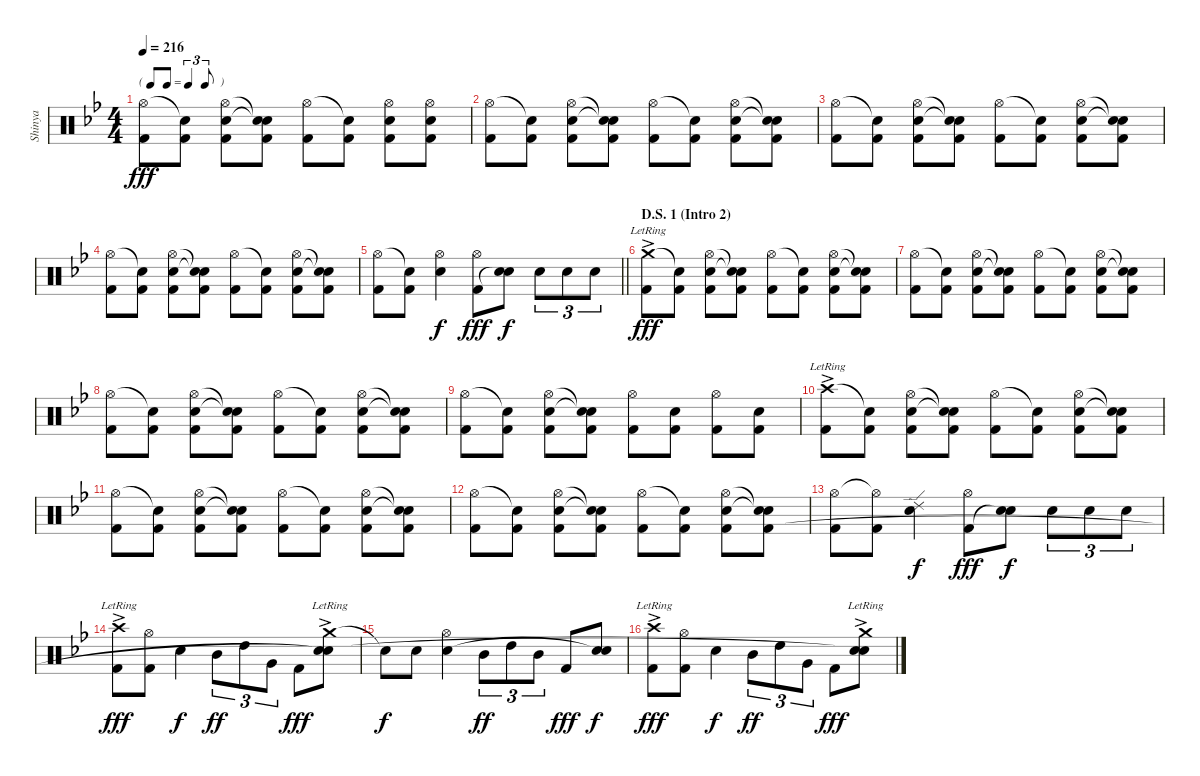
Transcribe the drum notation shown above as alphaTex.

\track ("Shinya" "Shinya") {instrument percussion}
\staff {score}
\articulation defaults
\ts (4 4)
\tf triplet8th
\tempo 216
\clef neutral
\ks bb
("Hi-Hat (open)" "Kick (hit) 2").8{dy fff} ("Snare (hit)"{t} "Kick (hit) 2").8 ("Hi-Hat (open)" "Electric Snare (hit)" "Kick (hit) 2").8 ("Snare (hit)"{t} "Snare (hit)"{t} "Kick (hit) 2").8 ("Hi-Hat (open)" "Kick (hit) 2").8 ("Snare (hit)"{t} "Kick (hit) 2").8 ("Hi-Hat (open)" "Electric Snare (hit)" "Kick (hit) 2").8 ("Hi-Hat (open)" "Electric Snare (hit)" "Kick (hit) 2").8 |
("Hi-Hat (open)" "Kick (hit) 2").8 ("Snare (hit)"{t} "Kick (hit) 2").8 ("Hi-Hat (open)" "Electric Snare (hit)" "Kick (hit) 2").8 ("Snare (hit)"{t} "Snare (hit)"{t} "Kick (hit) 2").8 ("Hi-Hat (open)" "Kick (hit) 2").8 ("Snare (hit)"{t} "Kick (hit) 2").8 ("Hi-Hat (open)" "Electric Snare (hit)" "Kick (hit) 2").8 ("Snare (hit)"{t} "Snare (hit)"{t} "Kick (hit) 2").8 |
("Hi-Hat (open)" "Kick (hit) 2").8 ("Snare (hit)"{t} "Kick (hit) 2").8 ("Hi-Hat (open)" "Electric Snare (hit)" "Kick (hit) 2").8 ("Snare (hit)"{t} "Snare (hit)"{t} "Kick (hit) 2").8 ("Hi-Hat (open)" "Kick (hit) 2").8 ("Snare (hit)"{t} "Kick (hit) 2").8 ("Hi-Hat (open)" "Electric Snare (hit)" "Kick (hit) 2").8 ("Snare (hit)"{t} "Snare (hit)"{t} "Kick (hit) 2").8 |
("Hi-Hat (open)" "Kick (hit) 2").8 ("Snare (hit)"{t} "Kick (hit) 2").8 ("Hi-Hat (open)" "Electric Snare (hit)" "Kick (hit) 2").8 ("Snare (hit)"{t} "Snare (hit)"{t} "Kick (hit) 2").8 ("Hi-Hat (open)" "Kick (hit) 2").8 ("Snare (hit)"{t} "Kick (hit) 2").8 ("Hi-Hat (open)" "Electric Snare (hit)" "Kick (hit) 2").8 ("Snare (hit)"{t} "Snare (hit)"{t} "Kick (hit) 2").8 |
\barLineRight lightlight
("Hi-Hat (open)" "Kick (hit) 2").8 ("Snare (hit)"{t} "Kick (hit) 2").8 ("Hi-Hat (open)" "Electric Snare (hit)").4{dy f} ("Hi-Hat (open)" "Kick (hit) 2").8{dy fff} ("Electric Snare (hit)" "Snare (hit)"{t}).8{dy f} "Electric Snare (hit)".8{tu (3 2)} "Electric Snare (hit)".8{tu (3 2)} "Electric Snare (hit)".8{tu (3 2)} |
\section ("" "D.S. 1 (Intro 2)")
("Crash medium (hit)"{ac lr} "Kick (hit) 2").8{dy fff} ("Snare (hit)"{t} "Kick (hit) 2").8 ("Hi-Hat (open)" "Electric Snare (hit)" "Kick (hit) 2").8 ("Snare (hit)"{t} "Snare (hit)"{t} "Kick (hit) 2").8 ("Hi-Hat (open)" "Kick (hit) 2").8 ("Snare (hit)"{t} "Kick (hit) 2").8 ("Hi-Hat (open)" "Electric Snare (hit)" "Kick (hit) 2").8 ("Snare (hit)"{t} "Electric Snare (hit)"{t} "Kick (hit) 2").8 |
("Hi-Hat (open)" "Kick (hit) 2").8 ("Snare (hit)"{t} "Kick (hit) 2").8 ("Hi-Hat (open)" "Electric Snare (hit)" "Kick (hit) 2").8 ("Snare (hit)"{t} "Snare (hit)"{t} "Kick (hit) 2").8 ("Hi-Hat (open)" "Kick (hit) 2").8 ("Snare (hit)"{t} "Kick (hit) 2").8 ("Hi-Hat (open)" "Electric Snare (hit)" "Kick (hit) 2").8 ("Snare (hit)"{t} "Electric Snare (hit)"{t} "Kick (hit) 2").8 |
("Hi-Hat (open)" "Kick (hit) 2").8 ("Snare (hit)"{t} "Kick (hit) 2").8 ("Hi-Hat (open)" "Electric Snare (hit)" "Kick (hit) 2").8 ("Snare (hit)"{t} "Snare (hit)"{t} "Kick (hit) 2").8 ("Hi-Hat (open)" "Kick (hit) 2").8 ("Snare (hit)"{t} "Kick (hit) 2").8 ("Hi-Hat (open)" "Electric Snare (hit)" "Kick (hit) 2").8 ("Snare (hit)"{t} "Electric Snare (hit)"{t} "Kick (hit) 2").8 |
("Hi-Hat (open)" "Kick (hit) 2").8 ("Snare (hit)"{t} "Kick (hit) 2").8 ("Hi-Hat (open)" "Electric Snare (hit)" "Kick (hit) 2").8 ("Snare (hit)"{t} "Snare (hit)"{t} "Kick (hit) 2").8 ("Hi-Hat (open)" "Kick (hit) 2").8 ("Electric Snare (hit)" "Kick (hit) 2").8 ("Hi-Hat (open)" "Kick (hit) 2").8 ("Electric Snare (hit)" "Kick (hit) 2").8 |
("Crash high (hit)"{ac lr} "Kick (hit) 2").8 ("Snare (hit)"{t} "Kick (hit) 2").8 ("Hi-Hat (open)" "Electric Snare (hit)" "Kick (hit) 2").8 ("Snare (hit)"{t} "Snare (hit)"{t} "Kick (hit) 2").8 ("Hi-Hat (open)" "Kick (hit) 2").8 ("Snare (hit)"{t} "Kick (hit) 2").8 ("Hi-Hat (open)" "Electric Snare (hit)" "Kick (hit) 2").8 ("Snare (hit)"{t} "Electric Snare (hit)"{t} "Kick (hit) 2").8 |
("Hi-Hat (open)" "Kick (hit) 2").8 ("Snare (hit)"{t} "Kick (hit) 2").8 ("Hi-Hat (open)" "Electric Snare (hit)" "Kick (hit) 2").8 ("Snare (hit)"{t} "Snare (hit)"{t} "Kick (hit) 2").8 ("Hi-Hat (open)" "Kick (hit) 2").8 ("Snare (hit)"{t} "Kick (hit) 2").8 ("Hi-Hat (open)" "Electric Snare (hit)" "Kick (hit) 2").8 ("Snare (hit)"{t} "Electric Snare (hit)"{t} "Kick (hit) 2").8 |
("Hi-Hat (open)" "Kick (hit) 2").8 ("Snare (hit)"{t} "Kick (hit) 2").8 ("Hi-Hat (open)" "Electric Snare (hit)" "Kick (hit) 2").8 ("Snare (hit)"{t} "Snare (hit)"{t} "Kick (hit) 2").8 ("Hi-Hat (open)" "Kick (hit) 2").8 ("Snare (hit)"{t} "Kick (hit) 2").8 ("Hi-Hat (open)" "Electric Snare (hit)" "Kick (hit) 2").8 ("Snare (hit)"{t} "Electric Snare (hit)"{t} "Kick (hit) 2").8 |
("Hi-Hat (open)" "Kick (hit) 2").8 ("Hi-Hat (open)"{t} "Kick (hit) 2").8 ("Ride (edge) 2" "Electric Snare (hit)").4{dy f} ("Hi-Hat (open)" "Kick (hit) 2").8{dy fff} ("Electric Snare (hit)" "Snare (hit)"{t}).8{dy f} "Electric Snare (hit)".8{tu (3 2)} "Electric Snare (hit)".8{tu (3 2)} "Electric Snare (hit)".8{tu (3 2)} |
("Crash high (hit)"{ac lr} "Kick (hit) 2").8{dy fff} ("Hi-Hat (open)" "Kick (hit) 2").8 "Electric Snare (hit)".4{dy f} "Mid Tom (hit)".8{tu (3 2) dy ff} "High Tom (hit)".8{tu (3 2)} "Very Low Tom (hit)".8{tu (3 2)} "Kick (hit) 2".8{dy fff} ("Crash medium (hit)"{ac lr} "Electric Snare (hit)" "Snare (hit)"{t}).8 |
"Snare (hit)"{t}.8{dy f} "Electric Snare (hit)".8 ("Hi-Hat (open)" "Electric Snare (hit)").4 "Mid Tom (hit)".8{tu (3 2) dy ff} "High Tom (hit)".8{tu (3 2)} "Mid Tom (hit)".8{tu (3 2)} "Kick (hit) 2".8{dy fff} ("Electric Snare (hit)" "Snare (hit)"{t}).8{dy f} |
("Crash high (hit)"{ac lr} "Kick (hit) 2").8{dy fff} ("Hi-Hat (open)" "Kick (hit) 2").8 "Electric Snare (hit)".4{dy f} "Mid Tom (hit)".8{tu (3 2) dy ff} "High Tom (hit)".8{tu (3 2)} "Very Low Tom (hit)".8{tu (3 2)} "Kick (hit) 2".8{dy fff} ("Crash medium (hit)"{ac lr} "Electric Snare (hit)" "Snare (hit)"{t}).8
